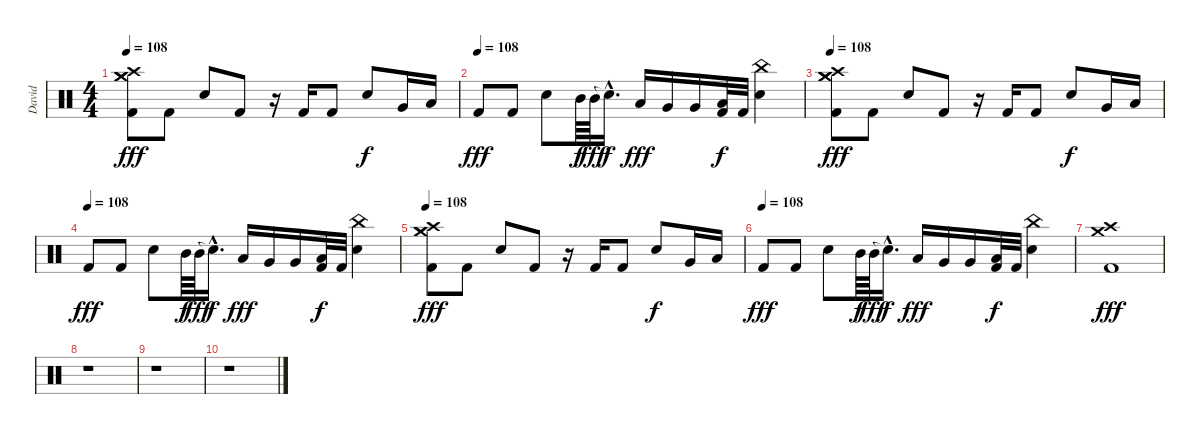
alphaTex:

\track ("David" "David") {instrument percussion}
\staff {score}
\articulation defaults
\ts (4 4)
\tempo 108
\clef neutral
\ks c
("Crash medium (hit)" "Crash high (hit)" "Crash medium (hit)" "Kick (hit) 2").8{dy fff} "Kick (hit) 2".8 "Snare (hit) 2".8 "Kick (hit) 2".8 r.16 "Kick (hit) 2".16 "Kick (hit) 2".8 "Snare (hit) 2".8{dy f} "Very Low Tom (hit)".16 "Low Tom (hit)".16 |
\tempo (108)
"Kick (hit) 2".8{dy fff} "Kick (hit) 2".8 "Snare (hit) 2".8 "Mid Tom (hit)".64{dy f} "Mid Tom (hit)".64{dy fff} "Snare (hit)"{hac t}.16{d dy f} "Low Tom (hit)".16{dy fff} "Very Low Tom (hit)".16 "Very Low Tom (hit)".16 ("Low Floor Tom (hit)" "Kick (hit) 2").32{dy f} "Kick (hit) 2".32 ("China (hit)" "Snare (hit) 2").4 |
\tempo 108
("Crash medium (hit)" "Crash high (hit)" "Crash medium (hit)" "Kick (hit) 2").8{dy fff} "Kick (hit) 2".8 "Snare (hit) 2".8 "Kick (hit) 2".8 r.16 "Kick (hit) 2".16 "Kick (hit) 2".8 "Snare (hit) 2".8{dy f} "Very Low Tom (hit)".16 "Low Tom (hit)".16 |
\tempo (108)
"Kick (hit) 2".8{dy fff} "Kick (hit) 2".8 "Snare (hit) 2".8 "Mid Tom (hit)".64{dy f} "Mid Tom (hit)".64{dy fff} "Snare (hit)"{hac t}.16{d dy f} "Low Tom (hit)".16{dy fff} "Very Low Tom (hit)".16 "Very Low Tom (hit)".16 ("Low Floor Tom (hit)" "Kick (hit) 2").32{dy f} "Kick (hit) 2".32 ("China (hit)" "Snare (hit) 2").4 |
\tempo 108
("Crash medium (hit)" "Crash high (hit)" "Crash medium (hit)" "Kick (hit) 2").8{dy fff} "Kick (hit) 2".8 "Snare (hit) 2".8 "Kick (hit) 2".8 r.16 "Kick (hit) 2".16 "Kick (hit) 2".8 "Snare (hit) 2".8{dy f} "Very Low Tom (hit)".16 "Low Tom (hit)".16 |
\tempo (108)
"Kick (hit) 2".8{dy fff} "Kick (hit) 2".8 "Snare (hit) 2".8 "Mid Tom (hit)".64{dy f} "Mid Tom (hit)".64{dy fff} "Snare (hit)"{hac t}.16{d dy f} "Low Tom (hit)".16{dy fff} "Very Low Tom (hit)".16 "Very Low Tom (hit)".16 ("Low Floor Tom (hit)" "Kick (hit) 2").32{dy f} "Kick (hit) 2".32 ("China (hit)" "Snare (hit) 2").4 |
("Crash medium (hit)" "Crash high (hit)" "Kick (hit) 2").1{dy fff} |
r.1 |
r.1 |
r.1
